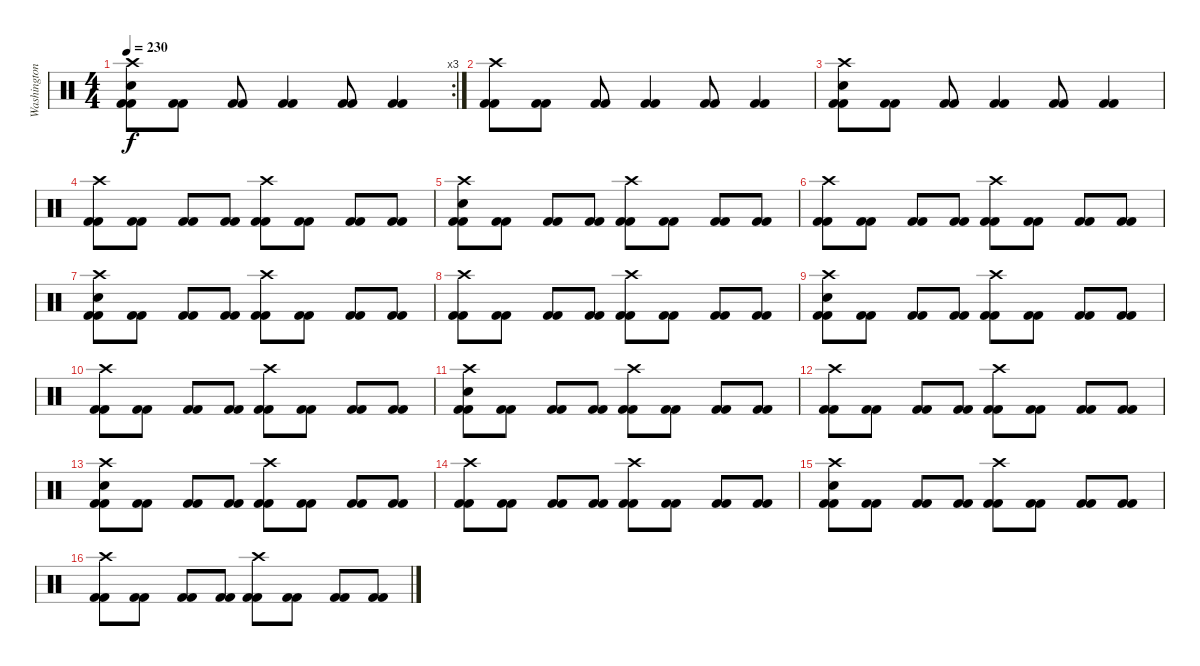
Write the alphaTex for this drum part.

\track ("Washington" "Washington") {solo instrument percussion}
\staff {score}
\articulation defaults
\rc 3
\ts (4 4)
\tempo 230
\clef neutral
\ks c
("Crash high (hit)" "Electric Snare (hit)" "Kick (hit) 2" "Kick (hit) 2").8{dy f} ("Kick (hit) 2" "Kick (hit) 2").8 ("Kick (hit) 2" "Kick (hit) 2").8 ("Kick (hit) 2" "Kick (hit) 2").4 ("Kick (hit) 2" "Kick (hit) 2").8 ("Kick (hit) 2" "Kick (hit) 2").4 |
("Crash high (hit)" "Kick (hit) 2" "Kick (hit) 2").8 ("Kick (hit) 2" "Kick (hit) 2").8 ("Kick (hit) 2" "Kick (hit) 2").8 ("Kick (hit) 2" "Kick (hit) 2").4 ("Kick (hit) 2" "Kick (hit) 2").8 ("Kick (hit) 2" "Kick (hit) 2").4 |
("Crash high (hit)" "Electric Snare (hit)" "Kick (hit) 2" "Kick (hit) 2").8 ("Kick (hit) 2" "Kick (hit) 2").8 ("Kick (hit) 2" "Kick (hit) 2").8 ("Kick (hit) 2" "Kick (hit) 2").4 ("Kick (hit) 2" "Kick (hit) 2").8 ("Kick (hit) 2" "Kick (hit) 2").4 |
("Crash high (hit)" "Kick (hit) 2" "Kick (hit) 2").8 ("Kick (hit) 2" "Kick (hit) 2").8 ("Kick (hit) 2" "Kick (hit) 2").8 ("Kick (hit) 2" "Kick (hit) 2").8 ("Crash high (hit)" "Kick (hit) 2" "Kick (hit) 2").8 ("Kick (hit) 2" "Kick (hit) 2").8 ("Kick (hit) 2" "Kick (hit) 2").8 ("Kick (hit) 2" "Kick (hit) 2").8 |
("Crash high (hit)" "Electric Snare (hit)" "Kick (hit) 2" "Kick (hit) 2").8 ("Kick (hit) 2" "Kick (hit) 2").8 ("Kick (hit) 2" "Kick (hit) 2").8 ("Kick (hit) 2" "Kick (hit) 2").8 ("Crash high (hit)" "Kick (hit) 2" "Kick (hit) 2").8 ("Kick (hit) 2" "Kick (hit) 2").8 ("Kick (hit) 2" "Kick (hit) 2").8 ("Kick (hit) 2" "Kick (hit) 2").8 |
("Crash high (hit)" "Kick (hit) 2" "Kick (hit) 2").8 ("Kick (hit) 2" "Kick (hit) 2").8 ("Kick (hit) 2" "Kick (hit) 2").8 ("Kick (hit) 2" "Kick (hit) 2").8 ("Crash high (hit)" "Kick (hit) 2" "Kick (hit) 2").8 ("Kick (hit) 2" "Kick (hit) 2").8 ("Kick (hit) 2" "Kick (hit) 2").8 ("Kick (hit) 2" "Kick (hit) 2").8 |
("Crash high (hit)" "Electric Snare (hit)" "Kick (hit) 2" "Kick (hit) 2").8 ("Kick (hit) 2" "Kick (hit) 2").8 ("Kick (hit) 2" "Kick (hit) 2").8 ("Kick (hit) 2" "Kick (hit) 2").8 ("Crash high (hit)" "Kick (hit) 2" "Kick (hit) 2").8 ("Kick (hit) 2" "Kick (hit) 2").8 ("Kick (hit) 2" "Kick (hit) 2").8 ("Kick (hit) 2" "Kick (hit) 2").8 |
("Crash high (hit)" "Kick (hit) 2" "Kick (hit) 2").8 ("Kick (hit) 2" "Kick (hit) 2").8 ("Kick (hit) 2" "Kick (hit) 2").8 ("Kick (hit) 2" "Kick (hit) 2").8 ("Crash high (hit)" "Kick (hit) 2" "Kick (hit) 2").8 ("Kick (hit) 2" "Kick (hit) 2").8 ("Kick (hit) 2" "Kick (hit) 2").8 ("Kick (hit) 2" "Kick (hit) 2").8 |
("Crash high (hit)" "Electric Snare (hit)" "Kick (hit) 2" "Kick (hit) 2").8 ("Kick (hit) 2" "Kick (hit) 2").8 ("Kick (hit) 2" "Kick (hit) 2").8 ("Kick (hit) 2" "Kick (hit) 2").8 ("Crash high (hit)" "Kick (hit) 2" "Kick (hit) 2").8 ("Kick (hit) 2" "Kick (hit) 2").8 ("Kick (hit) 2" "Kick (hit) 2").8 ("Kick (hit) 2" "Kick (hit) 2").8 |
("Crash high (hit)" "Kick (hit) 2" "Kick (hit) 2").8 ("Kick (hit) 2" "Kick (hit) 2").8 ("Kick (hit) 2" "Kick (hit) 2").8 ("Kick (hit) 2" "Kick (hit) 2").8 ("Crash high (hit)" "Kick (hit) 2" "Kick (hit) 2").8 ("Kick (hit) 2" "Kick (hit) 2").8 ("Kick (hit) 2" "Kick (hit) 2").8 ("Kick (hit) 2" "Kick (hit) 2").8 |
("Crash high (hit)" "Electric Snare (hit)" "Kick (hit) 2" "Kick (hit) 2").8 ("Kick (hit) 2" "Kick (hit) 2").8 ("Kick (hit) 2" "Kick (hit) 2").8 ("Kick (hit) 2" "Kick (hit) 2").8 ("Crash high (hit)" "Kick (hit) 2" "Kick (hit) 2").8 ("Kick (hit) 2" "Kick (hit) 2").8 ("Kick (hit) 2" "Kick (hit) 2").8 ("Kick (hit) 2" "Kick (hit) 2").8 |
("Crash high (hit)" "Kick (hit) 2" "Kick (hit) 2").8 ("Kick (hit) 2" "Kick (hit) 2").8 ("Kick (hit) 2" "Kick (hit) 2").8 ("Kick (hit) 2" "Kick (hit) 2").8 ("Crash high (hit)" "Kick (hit) 2" "Kick (hit) 2").8 ("Kick (hit) 2" "Kick (hit) 2").8 ("Kick (hit) 2" "Kick (hit) 2").8 ("Kick (hit) 2" "Kick (hit) 2").8 |
("Crash high (hit)" "Electric Snare (hit)" "Kick (hit) 2" "Kick (hit) 2").8 ("Kick (hit) 2" "Kick (hit) 2").8 ("Kick (hit) 2" "Kick (hit) 2").8 ("Kick (hit) 2" "Kick (hit) 2").8 ("Crash high (hit)" "Kick (hit) 2" "Kick (hit) 2").8 ("Kick (hit) 2" "Kick (hit) 2").8 ("Kick (hit) 2" "Kick (hit) 2").8 ("Kick (hit) 2" "Kick (hit) 2").8 |
("Crash high (hit)" "Kick (hit) 2" "Kick (hit) 2").8 ("Kick (hit) 2" "Kick (hit) 2").8 ("Kick (hit) 2" "Kick (hit) 2").8 ("Kick (hit) 2" "Kick (hit) 2").8 ("Crash high (hit)" "Kick (hit) 2" "Kick (hit) 2").8 ("Kick (hit) 2" "Kick (hit) 2").8 ("Kick (hit) 2" "Kick (hit) 2").8 ("Kick (hit) 2" "Kick (hit) 2").8 |
("Crash high (hit)" "Electric Snare (hit)" "Kick (hit) 2" "Kick (hit) 2").8 ("Kick (hit) 2" "Kick (hit) 2").8 ("Kick (hit) 2" "Kick (hit) 2").8 ("Kick (hit) 2" "Kick (hit) 2").8 ("Crash high (hit)" "Kick (hit) 2" "Kick (hit) 2").8 ("Kick (hit) 2" "Kick (hit) 2").8 ("Kick (hit) 2" "Kick (hit) 2").8 ("Kick (hit) 2" "Kick (hit) 2").8 |
("Crash high (hit)" "Kick (hit) 2" "Kick (hit) 2").8 ("Kick (hit) 2" "Kick (hit) 2").8 ("Kick (hit) 2" "Kick (hit) 2").8 ("Kick (hit) 2" "Kick (hit) 2").8 ("Crash high (hit)" "Kick (hit) 2" "Kick (hit) 2").8 ("Kick (hit) 2" "Kick (hit) 2").8 ("Kick (hit) 2" "Kick (hit) 2").8 ("Kick (hit) 2" "Kick (hit) 2").8
